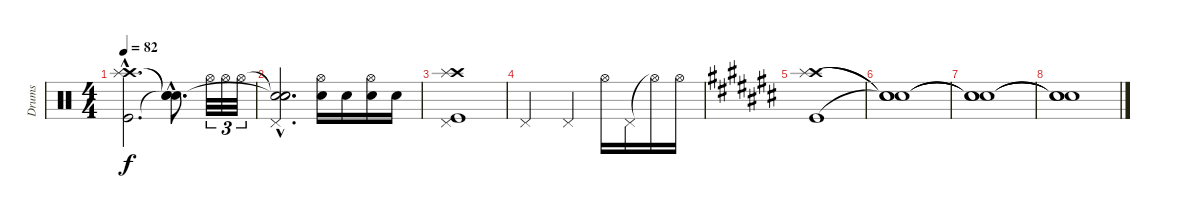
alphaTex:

\track ("Drums" "Drums") {instrument percussion}
\staff {score}
\articulation defaults
\ts (4 4)
\tempo 82
\clef neutral
\ks c
("Crash high (hit)"{hac} "Splash (hit)"{hac} "Kick (hit)"{hac}).2{d dy f} ("Snare (hit)"{hac t} "Snare (hit)"{hac t} "Snare (hit)"{hac t}).8{d} "Hi-Hat (open)".32{tu (3 2)} "Hi-Hat (open)".32{tu (3 2)} "Hi-Hat (open)".32{tu (3 2)} |
("Snare (hit)"{hac t} "Snare (hit)"{hac t} "Pedal Hi-Hat (hit)"{hac} "Snare (hit)"{hac}).2{d} ("Hi-Hat (open)" "Electric Snare (hit)").16 "Electric Snare (hit)".16 ("Hi-Hat (open)" "Electric Snare (hit)").16 "Electric Snare (hit)".16 |
("Crash high (hit)" "Splash (hit)" "Pedal Hi-Hat (hit)" "Kick (hit)").1 |
"Pedal Hi-Hat (hit)".2 "Pedal Hi-Hat (hit)".4 "Hi-Hat (open)".16 "Pedal Hi-Hat (hit)".16 "Hi-Hat (open)"{t}.16 "Hi-Hat (open)".16 |
\ks c#
("Crash high (hit)" "Splash (hit)" "Kick (hit)").1 |
("Snare (hit)"{t} "Snare (hit)"{t} "Snare (hit)"{t}).1 |
("Snare (hit)"{t} "Snare (hit)"{t} "Snare (hit)"{t}).1 |
("Snare (hit)"{t} "Snare (hit)"{t} "Snare (hit)"{t}).1
